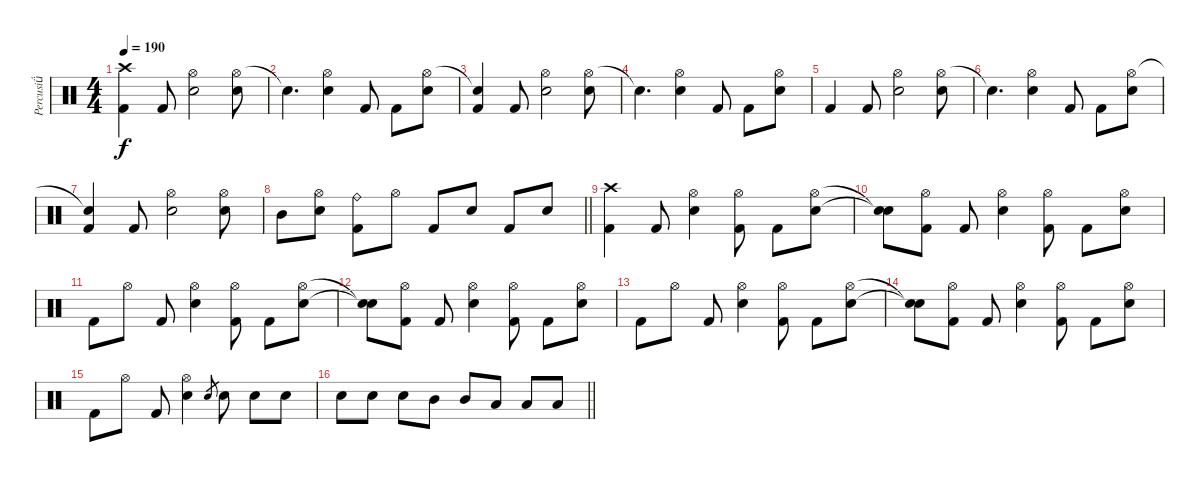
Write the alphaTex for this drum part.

\track ("Percusi" "Percusi") {instrument percussion}
\staff {score}
\articulation defaults
\ts (4 4)
\tempo 190
\clef neutral
\ks c
("Crash high (hit)" "Kick (hit) 2").4{dy f} "Kick (hit) 2".8 ("Hi-Hat (open)" "Electric Snare (hit)").2 ("Hi-Hat (open)" "Electric Snare (hit)").8 |
"Snare (hit)"{t}.4{d} ("Hi-Hat (open)" "Electric Snare (hit)").4 "Kick (hit) 2".8 "Kick (hit) 2".8 ("Hi-Hat (open)" "Electric Snare (hit)").8 |
("Snare (hit)"{t} "Kick (hit) 2").4 "Kick (hit) 2".8 ("Hi-Hat (open)" "Electric Snare (hit)").2 ("Hi-Hat (open)" "Electric Snare (hit)").8 |
"Snare (hit)"{t}.4{d} ("Hi-Hat (open)" "Electric Snare (hit)").4 "Kick (hit) 2".8 "Kick (hit) 2".8 ("Hi-Hat (open)" "Electric Snare (hit)").8 |
"Kick (hit) 2".4 "Kick (hit) 2".8 ("Hi-Hat (open)" "Electric Snare (hit)").2 ("Hi-Hat (open)" "Electric Snare (hit)").8 |
"Snare (hit)"{t}.4{d} ("Hi-Hat (open)" "Electric Snare (hit)").4 "Kick (hit) 2".8 "Kick (hit) 2".8 ("Hi-Hat (open)" "Electric Snare (hit)").8 |
("Snare (hit)"{t} "Kick (hit) 2").4 "Kick (hit) 2".8 ("Hi-Hat (open)" "Electric Snare (hit)").2 ("Hi-Hat (open)" "Electric Snare (hit)").8 |
\barLineRight lightlight "Mid Tom (hit)".8
("Hi-Hat (open)" "Electric Snare (hit)").8 ("Ride (bell)" "Kick (hit) 2").8 "Hi-Hat (open)".8 "Kick (hit) 2".8 "Electric Snare (hit)".8 "Kick (hit) 2".8 "Electric Snare (hit)".8 |
("Crash high (hit)" "Kick (hit) 2").4 "Kick (hit) 2".8 ("Hi-Hat (open)" "Electric Snare (hit)").4 ("Hi-Hat (open)" "Kick (hit) 2").8 "Kick (hit) 2".8 ("Hi-Hat (open)" "Electric Snare (hit)").8 |
("Snare (hit)"{t} "Snare (hit)"{t}).8 ("Hi-Hat (open)" "Kick (hit) 2").8 "Kick (hit) 2".8 ("Hi-Hat (open)" "Electric Snare (hit)").4 ("Hi-Hat (open)" "Kick (hit) 2").8 "Kick (hit) 2".8 ("Hi-Hat (open)" "Electric Snare (hit)").8 |
"Kick (hit) 2".8 "Hi-Hat (open)".8 "Kick (hit) 2".8 ("Hi-Hat (open)" "Electric Snare (hit)").4 ("Hi-Hat (open)" "Kick (hit) 2").8 "Kick (hit) 2".8 ("Hi-Hat (open)" "Electric Snare (hit)").8 |
("Snare (hit)"{t} "Snare (hit)"{t}).8 ("Hi-Hat (open)" "Kick (hit) 2").8 "Kick (hit) 2".8 ("Hi-Hat (open)" "Electric Snare (hit)").4 ("Hi-Hat (open)" "Kick (hit) 2").8 "Kick (hit) 2".8 ("Hi-Hat (open)" "Electric Snare (hit)").8 |
"Kick (hit) 2".8 "Hi-Hat (open)".8 "Kick (hit) 2".8 ("Hi-Hat (open)" "Electric Snare (hit)").4 ("Hi-Hat (open)" "Kick (hit) 2").8 "Kick (hit) 2".8 ("Hi-Hat (open)" "Electric Snare (hit)").8 |
("Snare (hit)"{t} "Snare (hit)"{t}).8 ("Hi-Hat (open)" "Kick (hit) 2").8 "Kick (hit) 2".8 ("Hi-Hat (open)" "Electric Snare (hit)").4 ("Hi-Hat (open)" "Kick (hit) 2").8 "Kick (hit) 2".8 ("Hi-Hat (open)" "Electric Snare (hit)").8 |
"Kick (hit) 2".8 "Hi-Hat (open)".8 "Kick (hit) 2".8 ("Hi-Hat (open)" "Electric Snare (hit)").4 "Electric Snare (hit)".8{gr} "Electric Snare (hit)".8 "Electric Snare (hit)".8 "Electric Snare (hit)".8 |
\barLineRight lightlight "Electric Snare (hit)".8 "Electric Snare (hit)".8 "Electric Snare (hit)".8 "Mid Tom (hit)".8 "Mid Tom (hit)".8 "Low Tom (hit)".8 "Low Tom (hit)".8 "Low Floor Tom (hit)".8
